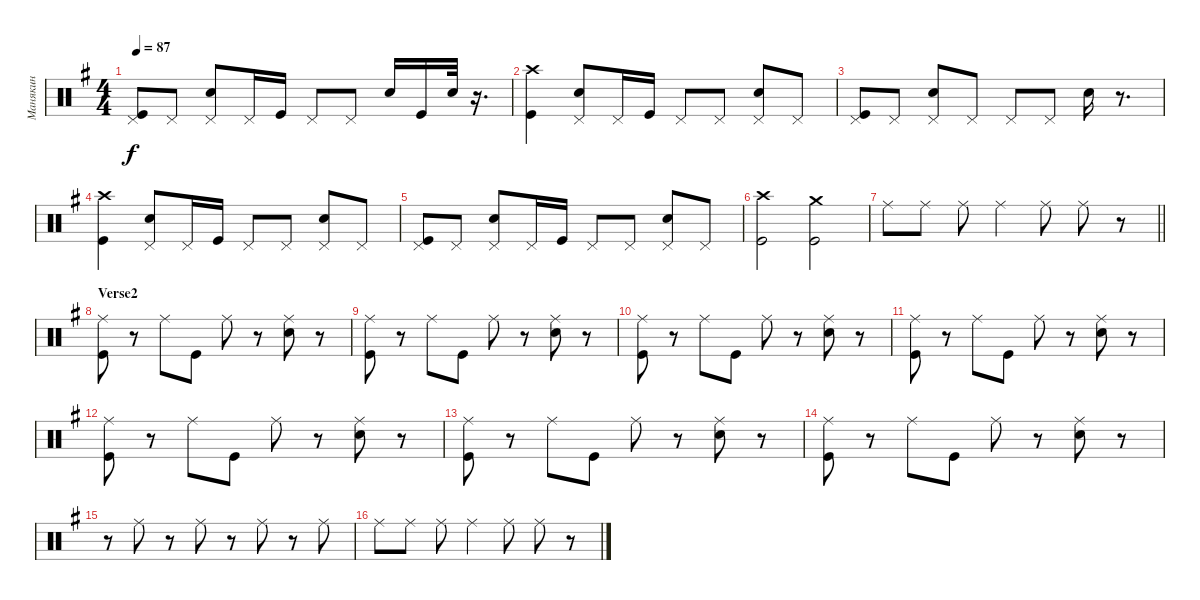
\track ("Манякин" "Манякин") {instrument percussion}
\staff {score}
\articulation defaults
\ts (4 4)
\tempo 87
\clef neutral
\ks g
("Kick (hit)" "Pedal Hi-Hat (hit)").8{dy f} "Pedal Hi-Hat (hit)".8 ("Electric Snare (hit)" "Pedal Hi-Hat (hit)").8 "Pedal Hi-Hat (hit)".16 "Kick (hit)".16 "Pedal Hi-Hat (hit)".8 "Pedal Hi-Hat (hit)".8 "Electric Snare (hit)".16 "Kick (hit)".16 "Electric Snare (hit)".32 r.16{d} |
("Kick (hit)" "Crash high (hit)").4 ("Electric Snare (hit)" "Pedal Hi-Hat (hit)").8 "Pedal Hi-Hat (hit)".16 "Kick (hit)".16 "Pedal Hi-Hat (hit)".8 "Pedal Hi-Hat (hit)".8 ("Electric Snare (hit)" "Pedal Hi-Hat (hit)").8 "Pedal Hi-Hat (hit)".8 |
("Kick (hit)" "Pedal Hi-Hat (hit)").8 "Pedal Hi-Hat (hit)".8 ("Electric Snare (hit)" "Pedal Hi-Hat (hit)").8 "Pedal Hi-Hat (hit)".8 "Pedal Hi-Hat (hit)".8 "Pedal Hi-Hat (hit)".8 "Electric Snare (hit)".16 r.8{d} |
("Kick (hit)" "Crash high (hit)").4 ("Electric Snare (hit)" "Pedal Hi-Hat (hit)").8 "Pedal Hi-Hat (hit)".16 "Kick (hit)".16 "Pedal Hi-Hat (hit)".8 "Pedal Hi-Hat (hit)".8 ("Electric Snare (hit)" "Pedal Hi-Hat (hit)").8 "Pedal Hi-Hat (hit)".8 |
("Kick (hit)" "Pedal Hi-Hat (hit)").8 "Pedal Hi-Hat (hit)".8 ("Electric Snare (hit)" "Pedal Hi-Hat (hit)").8 "Pedal Hi-Hat (hit)".16 "Kick (hit)".16 "Pedal Hi-Hat (hit)".8 "Pedal Hi-Hat (hit)".8 ("Electric Snare (hit)" "Pedal Hi-Hat (hit)").8 "Pedal Hi-Hat (hit)".8 |
("Kick (hit)" "Crash high (hit)").2 ("Kick (hit)" "Crash medium (hit)").2 |
\barLineRight lightlight "Ride (middle)".8 "Ride (middle)".8 "Ride (middle)".8 "Ride (middle)".4 "Ride (middle)".8 "Ride (middle)".8
r.8 |
\section ("" "Verse2")
("Ride (middle)" "Kick (hit)").8 r.8 "Ride (middle)".8 "Kick (hit)".8 "Ride (middle)".8 r.8 ("Ride (middle)" "Electric Snare (hit)").8 r.8 |
("Ride (middle)" "Kick (hit)").8 r.8 "Ride (middle)".8 "Kick (hit)".8 "Ride (middle)".8 r.8 ("Ride (middle)" "Electric Snare (hit)").8 r.8 |
("Ride (middle)" "Kick (hit)").8 r.8 "Ride (middle)".8 "Kick (hit)".8 "Ride (middle)".8 r.8 ("Ride (middle)" "Electric Snare (hit)").8 r.8 |
("Kick (hit)" "Ride (middle)").8 r.8 "Ride (middle)".8 "Kick (hit)".8 "Ride (middle)".8 r.8 ("Ride (middle)" "Electric Snare (hit)").8 r.8 |
("Ride (middle)" "Kick (hit)").8 r.8 "Ride (middle)".8 "Kick (hit)".8 "Ride (middle)".8 r.8 ("Electric Snare (hit)" "Ride (middle)").8 r.8 |
("Ride (middle)" "Kick (hit)").8 r.8 "Ride (middle)".8 "Kick (hit)".8 "Ride (middle)".8 r.8 ("Electric Snare (hit)" "Ride (middle)").8 r.8 |
("Kick (hit)" "Ride (middle)").8 r.8 "Ride (middle)".8 "Kick (hit)".8 "Ride (middle)".8 r.8 ("Electric Snare (hit)" "Ride (middle)").8 r.8 |
r.8 "Ride (middle)".8 r.8 "Ride (middle)".8 r.8 "Ride (middle)".8 r.8 "Ride (middle)".8 |
"Ride (middle)".8 "Ride (middle)".8 "Ride (middle)".8 "Ride (middle)".4 "Ride (middle)".8 "Ride (middle)".8 r.8
